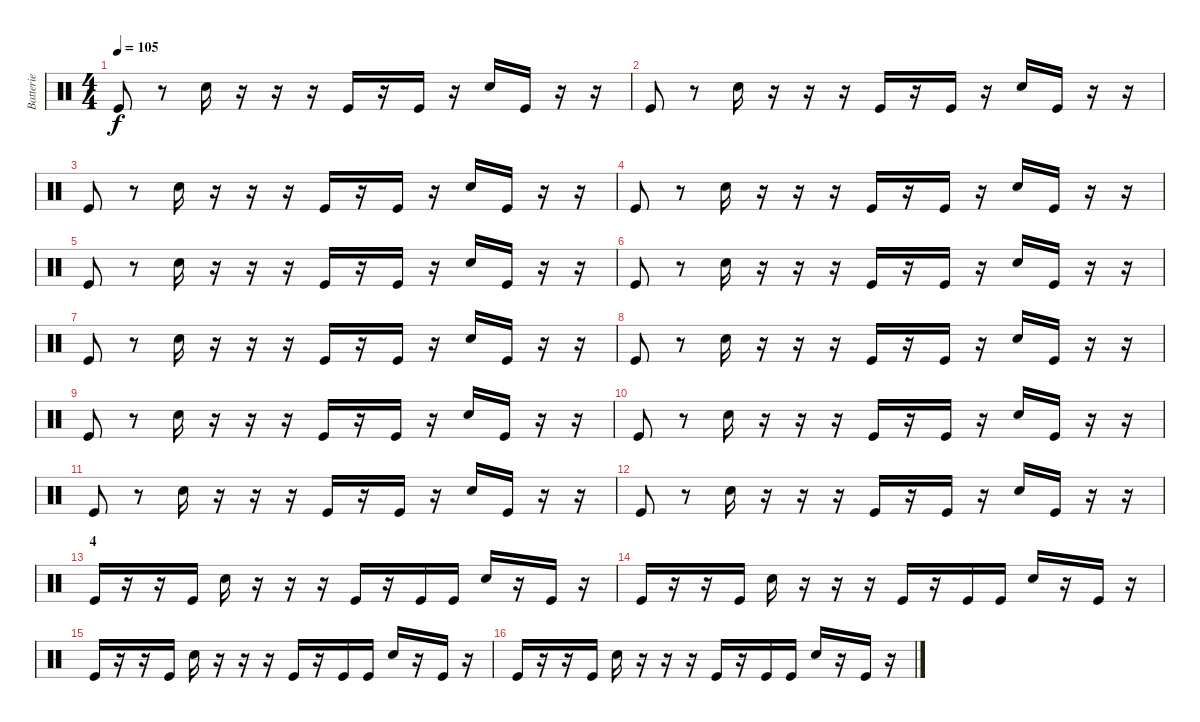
\track ("Batterie" "Batterie") {instrument percussion}
\staff {score}
\articulation defaults
\ts (4 4)
\tempo 105
\clef neutral
\ks c "Kick (hit)".8{dy f}
r.8 "Electric Snare (hit)".16 r.16 r.16 r.16 "Kick (hit)".16 r.16 "Kick (hit)".16 r.16 "Electric Snare (hit)".16 "Kick (hit)".16 r.16 r.16 |
"Kick (hit)".8 r.8 "Electric Snare (hit)".16 r.16 r.16 r.16 "Kick (hit)".16 r.16 "Kick (hit)".16 r.16 "Electric Snare (hit)".16 "Kick (hit)".16 r.16 r.16 |
"Kick (hit)".8 r.8 "Electric Snare (hit)".16 r.16 r.16 r.16 "Kick (hit)".16 r.16 "Kick (hit)".16 r.16 "Electric Snare (hit)".16 "Kick (hit)".16 r.16 r.16 |
"Kick (hit)".8 r.8 "Electric Snare (hit)".16 r.16 r.16 r.16 "Kick (hit)".16 r.16 "Kick (hit)".16 r.16 "Electric Snare (hit)".16 "Kick (hit)".16 r.16 r.16 |
"Kick (hit)".8 r.8 "Electric Snare (hit)".16 r.16 r.16 r.16 "Kick (hit)".16 r.16 "Kick (hit)".16 r.16 "Electric Snare (hit)".16 "Kick (hit)".16 r.16 r.16 |
"Kick (hit)".8 r.8 "Electric Snare (hit)".16 r.16 r.16 r.16 "Kick (hit)".16 r.16 "Kick (hit)".16 r.16 "Electric Snare (hit)".16 "Kick (hit)".16 r.16 r.16 |
"Kick (hit)".8 r.8 "Electric Snare (hit)".16 r.16 r.16 r.16 "Kick (hit)".16 r.16 "Kick (hit)".16 r.16 "Electric Snare (hit)".16 "Kick (hit)".16 r.16 r.16 |
"Kick (hit)".8 r.8 "Electric Snare (hit)".16 r.16 r.16 r.16 "Kick (hit)".16 r.16 "Kick (hit)".16 r.16 "Electric Snare (hit)".16 "Kick (hit)".16 r.16 r.16 |
"Kick (hit)".8 r.8 "Electric Snare (hit)".16 r.16 r.16 r.16 "Kick (hit)".16 r.16 "Kick (hit)".16 r.16 "Electric Snare (hit)".16 "Kick (hit)".16 r.16 r.16 |
"Kick (hit)".8 r.8 "Electric Snare (hit)".16 r.16 r.16 r.16 "Kick (hit)".16 r.16 "Kick (hit)".16 r.16 "Electric Snare (hit)".16 "Kick (hit)".16 r.16 r.16 |
"Kick (hit)".8 r.8 "Electric Snare (hit)".16 r.16 r.16 r.16 "Kick (hit)".16 r.16 "Kick (hit)".16 r.16 "Electric Snare (hit)".16 "Kick (hit)".16 r.16 r.16 |
"Kick (hit)".8 r.8 "Electric Snare (hit)".16 r.16 r.16 r.16 "Kick (hit)".16 r.16 "Kick (hit)".16 r.16 "Electric Snare (hit)".16 "Kick (hit)".16 r.16 r.16 |
\section ("" "4")
"Kick (hit)".16 r.16 r.16 "Kick (hit)".16 "Electric Snare (hit)".16 r.16 r.16 r.16 "Kick (hit)".16 r.16 "Kick (hit)".16 "Kick (hit)".16 "Electric Snare (hit)".16 r.16 "Kick (hit)".16 r.16 |
"Kick (hit)".16 r.16 r.16 "Kick (hit)".16 "Electric Snare (hit)".16 r.16 r.16 r.16 "Kick (hit)".16 r.16 "Kick (hit)".16 "Kick (hit)".16 "Electric Snare (hit)".16 r.16 "Kick (hit)".16 r.16 |
"Kick (hit)".16 r.16 r.16 "Kick (hit)".16 "Electric Snare (hit)".16 r.16 r.16 r.16 "Kick (hit)".16 r.16 "Kick (hit)".16 "Kick (hit)".16 "Electric Snare (hit)".16 r.16 "Kick (hit)".16 r.16 |
"Kick (hit)".16 r.16 r.16 "Kick (hit)".16 "Electric Snare (hit)".16 r.16 r.16 r.16 "Kick (hit)".16 r.16 "Kick (hit)".16 "Kick (hit)".16 "Electric Snare (hit)".16 r.16 "Kick (hit)".16 r.16
